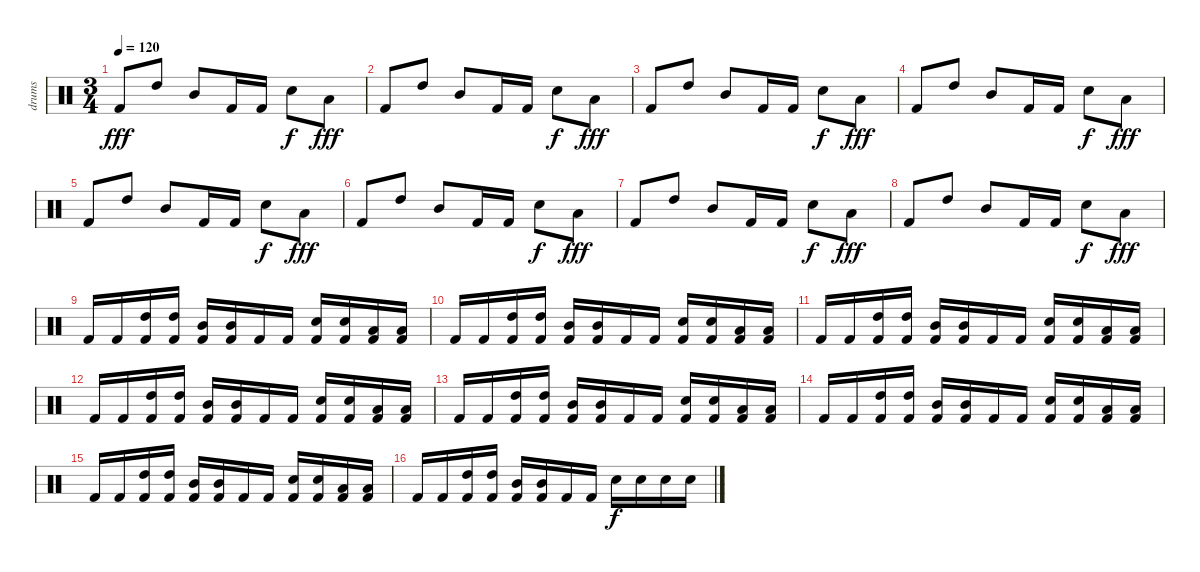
\track ("drums" "drums") {instrument percussion}
\staff {score}
\articulation defaults
\ts (3 4)
\tempo 120
\clef neutral
\ks c "Kick (hit) 2".8{dy fff} "High Tom (hit)".8 "Mid Tom (hit)".8 "Kick (hit) 2".16 "Kick (hit) 2".16 "Snare (hit) 2".8{dy f} "Low Tom (hit)".8{dy fff}
|
"Kick (hit) 2".8 "High Tom (hit)".8 "Mid Tom (hit)".8 "Kick (hit) 2".16 "Kick (hit) 2".16 "Snare (hit) 2".8{dy f} "Low Tom (hit)".8{dy fff} |
"Kick (hit) 2".8 "High Tom (hit)".8 "Mid Tom (hit)".8 "Kick (hit) 2".16 "Kick (hit) 2".16 "Snare (hit) 2".8{dy f} "Low Tom (hit)".8{dy fff} |
"Kick (hit) 2".8 "High Tom (hit)".8 "Mid Tom (hit)".8 "Kick (hit) 2".16 "Kick (hit) 2".16 "Snare (hit) 2".8{dy f} "Low Tom (hit)".8{dy fff} |
"Kick (hit) 2".8 "High Tom (hit)".8 "Mid Tom (hit)".8 "Kick (hit) 2".16 "Kick (hit) 2".16 "Snare (hit) 2".8{dy f} "Low Tom (hit)".8{dy fff} |
"Kick (hit) 2".8 "High Tom (hit)".8 "Mid Tom (hit)".8 "Kick (hit) 2".16 "Kick (hit) 2".16 "Snare (hit) 2".8{dy f} "Low Tom (hit)".8{dy fff} |
"Kick (hit) 2".8 "High Tom (hit)".8 "Mid Tom (hit)".8 "Kick (hit) 2".16 "Kick (hit) 2".16 "Snare (hit) 2".8{dy f} "Low Tom (hit)".8{dy fff} |
"Kick (hit) 2".8 "High Tom (hit)".8 "Mid Tom (hit)".8 "Kick (hit) 2".16 "Kick (hit) 2".16 "Snare (hit) 2".8{dy f} "Low Tom (hit)".8{dy fff} |
"Kick (hit) 2".16 "Kick (hit) 2".16 ("High Tom (hit)" "Kick (hit) 2").16 ("High Tom (hit)" "Kick (hit) 2").16 ("Mid Tom (hit)" "Kick (hit) 2").16 ("Mid Tom (hit)" "Kick (hit) 2").16 "Kick (hit) 2".16 "Kick (hit) 2".16 ("Snare (hit) 2" "Kick (hit) 2").16 ("Snare (hit) 2" "Kick (hit) 2").16 ("Low Tom (hit)" "Kick (hit) 2").16 ("Low Tom (hit)" "Kick (hit) 2").16 |
"Kick (hit) 2".16 "Kick (hit) 2".16 ("High Tom (hit)" "Kick (hit) 2").16 ("High Tom (hit)" "Kick (hit) 2").16 ("Mid Tom (hit)" "Kick (hit) 2").16 ("Mid Tom (hit)" "Kick (hit) 2").16 "Kick (hit) 2".16 "Kick (hit) 2".16 ("Snare (hit) 2" "Kick (hit) 2").16 ("Snare (hit) 2" "Kick (hit) 2").16 ("Low Tom (hit)" "Kick (hit) 2").16 ("Low Tom (hit)" "Kick (hit) 2").16 |
"Kick (hit) 2".16 "Kick (hit) 2".16 ("High Tom (hit)" "Kick (hit) 2").16 ("High Tom (hit)" "Kick (hit) 2").16 ("Mid Tom (hit)" "Kick (hit) 2").16 ("Mid Tom (hit)" "Kick (hit) 2").16 "Kick (hit) 2".16 "Kick (hit) 2".16 ("Snare (hit) 2" "Kick (hit) 2").16 ("Snare (hit) 2" "Kick (hit) 2").16 ("Low Tom (hit)" "Kick (hit) 2").16 ("Low Tom (hit)" "Kick (hit) 2").16 |
"Kick (hit) 2".16 "Kick (hit) 2".16 ("High Tom (hit)" "Kick (hit) 2").16 ("High Tom (hit)" "Kick (hit) 2").16 ("Mid Tom (hit)" "Kick (hit) 2").16 ("Mid Tom (hit)" "Kick (hit) 2").16 "Kick (hit) 2".16 "Kick (hit) 2".16 ("Snare (hit) 2" "Kick (hit) 2").16 ("Snare (hit) 2" "Kick (hit) 2").16 ("Low Tom (hit)" "Kick (hit) 2").16 ("Low Tom (hit)" "Kick (hit) 2").16 |
"Kick (hit) 2".16 "Kick (hit) 2".16 ("High Tom (hit)" "Kick (hit) 2").16 ("High Tom (hit)" "Kick (hit) 2").16 ("Mid Tom (hit)" "Kick (hit) 2").16 ("Mid Tom (hit)" "Kick (hit) 2").16 "Kick (hit) 2".16 "Kick (hit) 2".16 ("Snare (hit) 2" "Kick (hit) 2").16 ("Snare (hit) 2" "Kick (hit) 2").16 ("Low Tom (hit)" "Kick (hit) 2").16 ("Low Tom (hit)" "Kick (hit) 2").16 |
"Kick (hit) 2".16 "Kick (hit) 2".16 ("High Tom (hit)" "Kick (hit) 2").16 ("High Tom (hit)" "Kick (hit) 2").16 ("Mid Tom (hit)" "Kick (hit) 2").16 ("Mid Tom (hit)" "Kick (hit) 2").16 "Kick (hit) 2".16 "Kick (hit) 2".16 ("Snare (hit) 2" "Kick (hit) 2").16 ("Snare (hit) 2" "Kick (hit) 2").16 ("Low Tom (hit)" "Kick (hit) 2").16 ("Low Tom (hit)" "Kick (hit) 2").16 |
"Kick (hit) 2".16 "Kick (hit) 2".16 ("High Tom (hit)" "Kick (hit) 2").16 ("High Tom (hit)" "Kick (hit) 2").16 ("Mid Tom (hit)" "Kick (hit) 2").16 ("Mid Tom (hit)" "Kick (hit) 2").16 "Kick (hit) 2".16 "Kick (hit) 2".16 ("Snare (hit) 2" "Kick (hit) 2").16 ("Snare (hit) 2" "Kick (hit) 2").16 ("Low Tom (hit)" "Kick (hit) 2").16 ("Low Tom (hit)" "Kick (hit) 2").16 |
"Kick (hit) 2".16 "Kick (hit) 2".16 ("High Tom (hit)" "Kick (hit) 2").16 ("High Tom (hit)" "Kick (hit) 2").16 ("Mid Tom (hit)" "Kick (hit) 2").16 ("Mid Tom (hit)" "Kick (hit) 2").16 "Kick (hit) 2".16 "Kick (hit) 2".16 "Snare (hit) 2".16{dy f} "Snare (hit) 2".16 "Snare (hit) 2".16 "Snare (hit) 2".16
